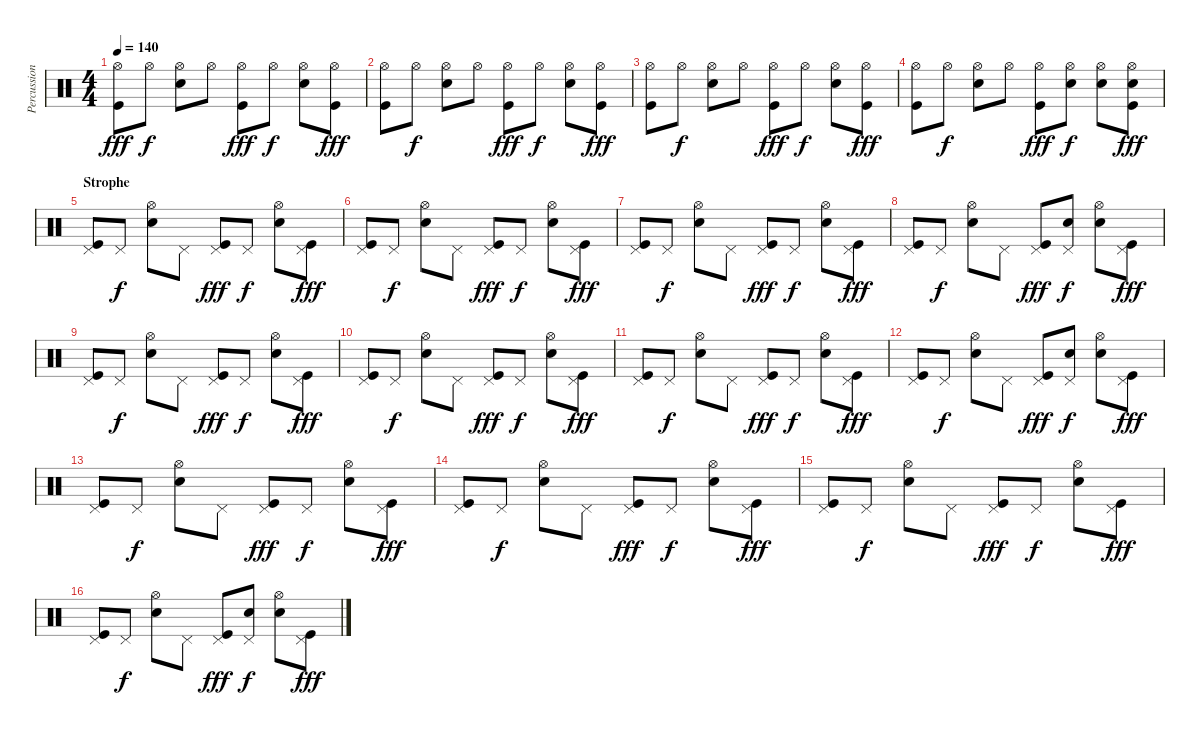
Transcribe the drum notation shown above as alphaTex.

\track ("Percussion" "Percussion") {instrument percussion}
\staff {score}
\articulation defaults
\ts (4 4)
\tempo 140
\clef neutral
\ks c
("Kick (hit)" "Hi-Hat (open)").8{dy fff} "Hi-Hat (open)".8{dy f} ("Metronome (bell)" "Hi-Hat (open)").8 "Hi-Hat (open)".8 ("Kick (hit)" "Hi-Hat (open)").8{dy fff} "Hi-Hat (open)".8{dy f} ("Metronome (bell)" "Hi-Hat (open)").8 ("Kick (hit)" "Hi-Hat (open)").8{dy fff} |
("Kick (hit)" "Hi-Hat (open)").8 "Hi-Hat (open)".8{dy f} ("Metronome (bell)" "Hi-Hat (open)").8 "Hi-Hat (open)".8 ("Kick (hit)" "Hi-Hat (open)").8{dy fff} "Hi-Hat (open)".8{dy f} ("Metronome (bell)" "Hi-Hat (open)").8 ("Kick (hit)" "Hi-Hat (open)").8{dy fff} |
("Kick (hit)" "Hi-Hat (open)").8 "Hi-Hat (open)".8{dy f} ("Metronome (bell)" "Hi-Hat (open)").8 "Hi-Hat (open)".8 ("Kick (hit)" "Hi-Hat (open)").8{dy fff} "Hi-Hat (open)".8{dy f} ("Metronome (bell)" "Hi-Hat (open)").8 ("Kick (hit)" "Hi-Hat (open)").8{dy fff} |
("Kick (hit)" "Hi-Hat (open)").8 "Hi-Hat (open)".8{dy f} ("Metronome (bell)" "Hi-Hat (open)").8 "Hi-Hat (open)".8 ("Kick (hit)" "Hi-Hat (open)").8{dy fff} ("Metronome (bell)" "Hi-Hat (open)").8{dy f} ("Metronome (bell)" "Hi-Hat (open)").8 ("Kick (hit)" "Metronome (bell)" "Hi-Hat (open)").8{dy fff} |
\section ("" "Strophe")
("Kick (hit)" "Pedal Hi-Hat (hit)").8 "Pedal Hi-Hat (hit)".8{dy f} ("Metronome (bell)" "Hi-Hat (open)").8 "Pedal Hi-Hat (hit)".8 ("Kick (hit)" "Pedal Hi-Hat (hit)").8{dy fff} "Pedal Hi-Hat (hit)".8{dy f} ("Metronome (bell)" "Hi-Hat (open)").8 ("Kick (hit)" "Pedal Hi-Hat (hit)").8{dy fff} |
("Kick (hit)" "Pedal Hi-Hat (hit)").8 "Pedal Hi-Hat (hit)".8{dy f} ("Metronome (bell)" "Hi-Hat (open)").8 "Pedal Hi-Hat (hit)".8 ("Kick (hit)" "Pedal Hi-Hat (hit)").8{dy fff} "Pedal Hi-Hat (hit)".8{dy f} ("Metronome (bell)" "Hi-Hat (open)").8 ("Kick (hit)" "Pedal Hi-Hat (hit)").8{dy fff} |
("Kick (hit)" "Pedal Hi-Hat (hit)").8 "Pedal Hi-Hat (hit)".8{dy f} ("Metronome (bell)" "Hi-Hat (open)").8 "Pedal Hi-Hat (hit)".8 ("Kick (hit)" "Pedal Hi-Hat (hit)").8{dy fff} "Pedal Hi-Hat (hit)".8{dy f} ("Metronome (bell)" "Hi-Hat (open)").8 ("Kick (hit)" "Pedal Hi-Hat (hit)").8{dy fff} |
("Kick (hit)" "Pedal Hi-Hat (hit)").8 "Pedal Hi-Hat (hit)".8{dy f} ("Metronome (bell)" "Hi-Hat (open)").8 "Pedal Hi-Hat (hit)".8 ("Kick (hit)" "Pedal Hi-Hat (hit)").8{dy fff} ("Metronome (bell)" "Pedal Hi-Hat (hit)").8{dy f} ("Metronome (bell)" "Hi-Hat (open)").8 ("Kick (hit)" "Pedal Hi-Hat (hit)").8{dy fff} |
("Kick (hit)" "Pedal Hi-Hat (hit)").8 "Pedal Hi-Hat (hit)".8{dy f} ("Metronome (bell)" "Hi-Hat (open)").8 "Pedal Hi-Hat (hit)".8 ("Kick (hit)" "Pedal Hi-Hat (hit)").8{dy fff} "Pedal Hi-Hat (hit)".8{dy f} ("Metronome (bell)" "Hi-Hat (open)").8 ("Kick (hit)" "Pedal Hi-Hat (hit)").8{dy fff} |
("Kick (hit)" "Pedal Hi-Hat (hit)").8 "Pedal Hi-Hat (hit)".8{dy f} ("Metronome (bell)" "Hi-Hat (open)").8 "Pedal Hi-Hat (hit)".8 ("Kick (hit)" "Pedal Hi-Hat (hit)").8{dy fff} "Pedal Hi-Hat (hit)".8{dy f} ("Metronome (bell)" "Hi-Hat (open)").8 ("Kick (hit)" "Pedal Hi-Hat (hit)").8{dy fff} |
("Kick (hit)" "Pedal Hi-Hat (hit)").8 "Pedal Hi-Hat (hit)".8{dy f} ("Metronome (bell)" "Hi-Hat (open)").8 "Pedal Hi-Hat (hit)".8 ("Kick (hit)" "Pedal Hi-Hat (hit)").8{dy fff} "Pedal Hi-Hat (hit)".8{dy f} ("Metronome (bell)" "Hi-Hat (open)").8 ("Kick (hit)" "Pedal Hi-Hat (hit)").8{dy fff} |
("Kick (hit)" "Pedal Hi-Hat (hit)").8 "Pedal Hi-Hat (hit)".8{dy f} ("Metronome (bell)" "Hi-Hat (open)").8 "Pedal Hi-Hat (hit)".8 ("Kick (hit)" "Pedal Hi-Hat (hit)").8{dy fff} ("Metronome (bell)" "Pedal Hi-Hat (hit)").8{dy f} ("Metronome (bell)" "Hi-Hat (open)").8 ("Kick (hit)" "Pedal Hi-Hat (hit)").8{dy fff} |
("Kick (hit)" "Pedal Hi-Hat (hit)").8 "Pedal Hi-Hat (hit)".8{dy f} ("Metronome (bell)" "Hi-Hat (open)").8 "Pedal Hi-Hat (hit)".8 ("Kick (hit)" "Pedal Hi-Hat (hit)").8{dy fff} "Pedal Hi-Hat (hit)".8{dy f} ("Metronome (bell)" "Hi-Hat (open)").8 ("Kick (hit)" "Pedal Hi-Hat (hit)").8{dy fff} |
("Kick (hit)" "Pedal Hi-Hat (hit)").8 "Pedal Hi-Hat (hit)".8{dy f} ("Metronome (bell)" "Hi-Hat (open)").8 "Pedal Hi-Hat (hit)".8 ("Kick (hit)" "Pedal Hi-Hat (hit)").8{dy fff} "Pedal Hi-Hat (hit)".8{dy f} ("Metronome (bell)" "Hi-Hat (open)").8 ("Kick (hit)" "Pedal Hi-Hat (hit)").8{dy fff} |
("Kick (hit)" "Pedal Hi-Hat (hit)").8 "Pedal Hi-Hat (hit)".8{dy f} ("Metronome (bell)" "Hi-Hat (open)").8 "Pedal Hi-Hat (hit)".8 ("Kick (hit)" "Pedal Hi-Hat (hit)").8{dy fff} "Pedal Hi-Hat (hit)".8{dy f} ("Metronome (bell)" "Hi-Hat (open)").8 ("Kick (hit)" "Pedal Hi-Hat (hit)").8{dy fff} |
("Kick (hit)" "Pedal Hi-Hat (hit)").8 "Pedal Hi-Hat (hit)".8{dy f} ("Metronome (bell)" "Hi-Hat (open)").8 "Pedal Hi-Hat (hit)".8 ("Kick (hit)" "Pedal Hi-Hat (hit)").8{dy fff} ("Metronome (bell)" "Pedal Hi-Hat (hit)").8{dy f} ("Metronome (bell)" "Hi-Hat (open)").8 ("Kick (hit)" "Pedal Hi-Hat (hit)").8{dy fff}
